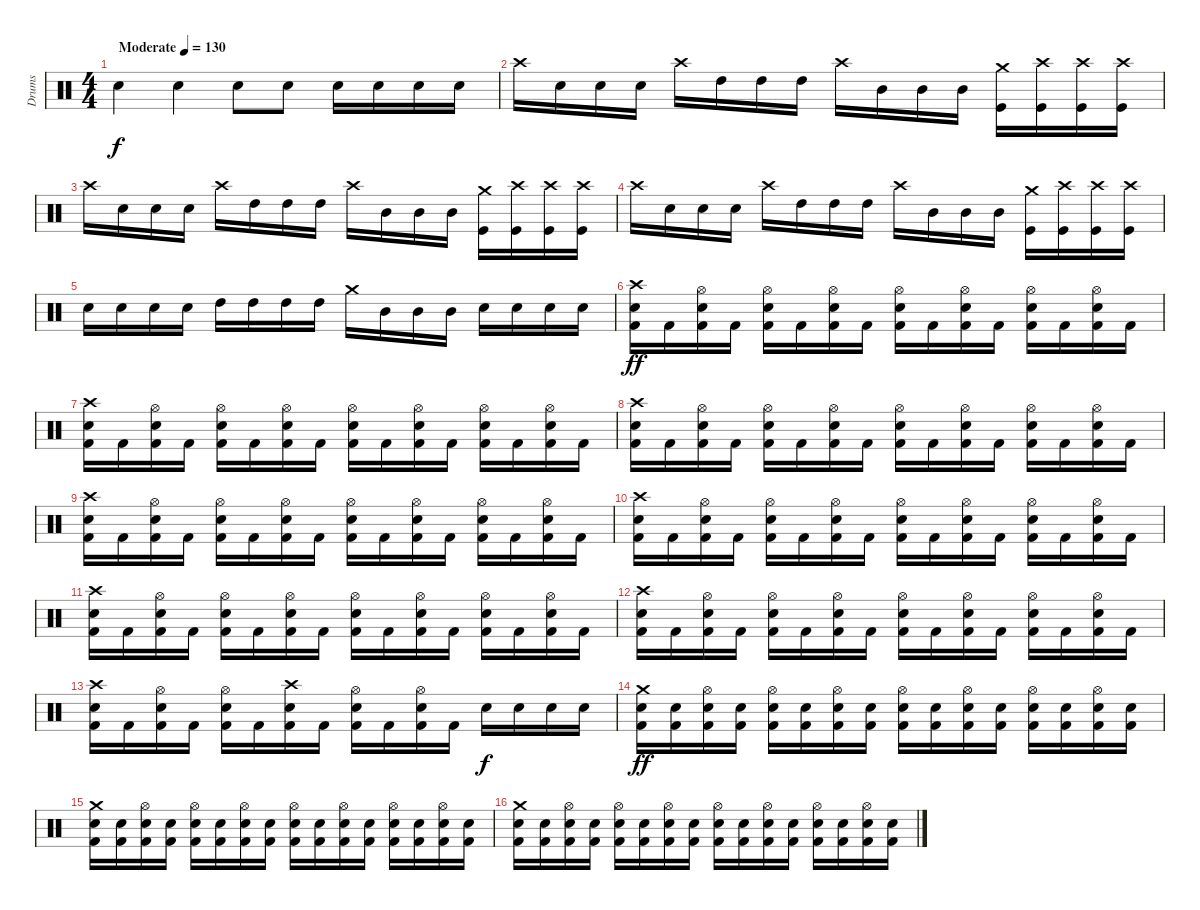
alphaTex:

\track ("Drums" "Drums") {instrument percussion}
\staff {score}
\articulation defaults
\ts (4 4)
\tempo (130 "Moderate")
\clef neutral
\ks c "Snare (hit) 2".4{dy f} "Snare (hit) 2".4 "Snare (hit) 2".8 "Snare (hit) 2".8 "Snare (hit) 2".16 "Snare (hit) 2".16 "Snare (hit) 2".16 "Snare (hit) 2".16
|
"Crash high (hit)".16 "Snare (hit) 2".16 "Snare (hit) 2".16 "Snare (hit) 2".16 "Crash high (hit)".16 "High Tom (hit)".16 "High Tom (hit)".16 "High Tom (hit)".16 "Crash high (hit)".16 "Mid Tom (hit)".16 "Mid Tom (hit)".16 "Mid Tom (hit)".16 ("Crash medium (hit)" "Kick (hit)").16 ("Crash high (hit)" "Kick (hit)").16 ("Kick (hit)" "Crash high (hit)").16 ("Crash high (hit)" "Kick (hit)").16 |
"Crash high (hit)".16 "Snare (hit) 2".16 "Snare (hit) 2".16 "Snare (hit) 2".16 "Crash high (hit)".16 "High Tom (hit)".16 "High Tom (hit)".16 "High Tom (hit)".16 "Crash high (hit)".16 "Mid Tom (hit)".16 "Mid Tom (hit)".16 "Mid Tom (hit)".16 ("Crash medium (hit)" "Kick (hit)").16 ("Crash high (hit)" "Kick (hit)").16 ("Kick (hit)" "Crash high (hit)").16 ("Crash high (hit)" "Kick (hit)").16 |
"Crash high (hit)".16 "Snare (hit) 2".16 "Snare (hit) 2".16 "Snare (hit) 2".16 "Crash high (hit)".16 "High Tom (hit)".16 "High Tom (hit)".16 "High Tom (hit)".16 "Crash high (hit)".16 "Mid Tom (hit)".16 "Mid Tom (hit)".16 "Mid Tom (hit)".16 ("Crash medium (hit)" "Kick (hit)").16 ("Crash high (hit)" "Kick (hit)").16 ("Kick (hit)" "Crash high (hit)").16 ("Crash high (hit)" "Kick (hit)").16 |
"Snare (hit) 2".16 "Snare (hit) 2".16 "Snare (hit) 2".16 "Snare (hit) 2".16 "High Tom (hit)".16 "High Tom (hit)".16 "High Tom (hit)".16 "High Tom (hit)".16 "Crash medium (hit)".16 "Mid Tom (hit)".16 "Mid Tom (hit)".16 "Mid Tom (hit)".16 "Snare (hit) 2".16 "Snare (hit) 2".16 "Snare (hit) 2".16 "Snare (hit) 2".16 |
("Kick (hit) 2" "Electric Snare (hit)" "Crash high (hit)").16{dy ff} "Kick (hit) 2".16 ("Kick (hit) 2" "Electric Snare (hit)" "Hi-Hat (open)").16 "Kick (hit) 2".16 ("Kick (hit) 2" "Hi-Hat (open)" "Electric Snare (hit)").16 "Kick (hit) 2".16 ("Kick (hit) 2" "Hi-Hat (open)" "Electric Snare (hit)").16 "Kick (hit) 2".16 ("Kick (hit) 2" "Hi-Hat (open)" "Electric Snare (hit)").16 "Kick (hit) 2".16 ("Kick (hit) 2" "Hi-Hat (open)" "Electric Snare (hit)").16 "Kick (hit) 2".16 ("Kick (hit) 2" "Hi-Hat (open)" "Electric Snare (hit)").16 "Kick (hit) 2".16 ("Kick (hit) 2" "Hi-Hat (open)" "Electric Snare (hit)").16 "Kick (hit) 2".16 |
("Kick (hit) 2" "Electric Snare (hit)" "Crash high (hit)").16 "Kick (hit) 2".16 ("Kick (hit) 2" "Electric Snare (hit)" "Hi-Hat (open)").16 "Kick (hit) 2".16 ("Kick (hit) 2" "Hi-Hat (open)" "Electric Snare (hit)").16 "Kick (hit) 2".16 ("Kick (hit) 2" "Hi-Hat (open)" "Electric Snare (hit)").16 "Kick (hit) 2".16 ("Kick (hit) 2" "Hi-Hat (open)" "Electric Snare (hit)").16 "Kick (hit) 2".16 ("Kick (hit) 2" "Hi-Hat (open)" "Electric Snare (hit)").16 "Kick (hit) 2".16 ("Kick (hit) 2" "Hi-Hat (open)" "Electric Snare (hit)").16 "Kick (hit) 2".16 ("Kick (hit) 2" "Hi-Hat (open)" "Electric Snare (hit)").16 "Kick (hit) 2".16 |
("Kick (hit) 2" "Electric Snare (hit)" "Crash high (hit)").16 "Kick (hit) 2".16 ("Kick (hit) 2" "Electric Snare (hit)" "Hi-Hat (open)").16 "Kick (hit) 2".16 ("Kick (hit) 2" "Hi-Hat (open)" "Electric Snare (hit)").16 "Kick (hit) 2".16 ("Kick (hit) 2" "Hi-Hat (open)" "Electric Snare (hit)").16 "Kick (hit) 2".16 ("Kick (hit) 2" "Hi-Hat (open)" "Electric Snare (hit)").16 "Kick (hit) 2".16 ("Kick (hit) 2" "Hi-Hat (open)" "Electric Snare (hit)").16 "Kick (hit) 2".16 ("Kick (hit) 2" "Hi-Hat (open)" "Electric Snare (hit)").16 "Kick (hit) 2".16 ("Kick (hit) 2" "Hi-Hat (open)" "Electric Snare (hit)").16 "Kick (hit) 2".16 |
("Kick (hit) 2" "Electric Snare (hit)" "Crash high (hit)").16 "Kick (hit) 2".16 ("Kick (hit) 2" "Electric Snare (hit)" "Hi-Hat (open)").16 "Kick (hit) 2".16 ("Kick (hit) 2" "Hi-Hat (open)" "Electric Snare (hit)").16 "Kick (hit) 2".16 ("Kick (hit) 2" "Hi-Hat (open)" "Electric Snare (hit)").16 "Kick (hit) 2".16 ("Kick (hit) 2" "Hi-Hat (open)" "Electric Snare (hit)").16 "Kick (hit) 2".16 ("Kick (hit) 2" "Hi-Hat (open)" "Electric Snare (hit)").16 "Kick (hit) 2".16 ("Kick (hit) 2" "Hi-Hat (open)" "Electric Snare (hit)").16 "Kick (hit) 2".16 ("Kick (hit) 2" "Hi-Hat (open)" "Electric Snare (hit)").16 "Kick (hit) 2".16 |
("Kick (hit) 2" "Electric Snare (hit)" "Crash high (hit)").16 "Kick (hit) 2".16 ("Kick (hit) 2" "Electric Snare (hit)" "Hi-Hat (open)").16 "Kick (hit) 2".16 ("Kick (hit) 2" "Hi-Hat (open)" "Electric Snare (hit)").16 "Kick (hit) 2".16 ("Kick (hit) 2" "Hi-Hat (open)" "Electric Snare (hit)").16 "Kick (hit) 2".16 ("Kick (hit) 2" "Hi-Hat (open)" "Electric Snare (hit)").16 "Kick (hit) 2".16 ("Kick (hit) 2" "Hi-Hat (open)" "Electric Snare (hit)").16 "Kick (hit) 2".16 ("Kick (hit) 2" "Hi-Hat (open)" "Electric Snare (hit)").16 "Kick (hit) 2".16 ("Kick (hit) 2" "Hi-Hat (open)" "Electric Snare (hit)").16 "Kick (hit) 2".16 |
("Kick (hit) 2" "Electric Snare (hit)" "Crash high (hit)").16 "Kick (hit) 2".16 ("Kick (hit) 2" "Electric Snare (hit)" "Hi-Hat (open)").16 "Kick (hit) 2".16 ("Kick (hit) 2" "Hi-Hat (open)" "Electric Snare (hit)").16 "Kick (hit) 2".16 ("Kick (hit) 2" "Hi-Hat (open)" "Electric Snare (hit)").16 "Kick (hit) 2".16 ("Kick (hit) 2" "Hi-Hat (open)" "Electric Snare (hit)").16 "Kick (hit) 2".16 ("Kick (hit) 2" "Hi-Hat (open)" "Electric Snare (hit)").16 "Kick (hit) 2".16 ("Kick (hit) 2" "Hi-Hat (open)" "Electric Snare (hit)").16 "Kick (hit) 2".16 ("Kick (hit) 2" "Hi-Hat (open)" "Electric Snare (hit)").16 "Kick (hit) 2".16 |
("Kick (hit) 2" "Electric Snare (hit)" "Crash high (hit)").16 "Kick (hit) 2".16 ("Kick (hit) 2" "Electric Snare (hit)" "Hi-Hat (open)").16 "Kick (hit) 2".16 ("Kick (hit) 2" "Hi-Hat (open)" "Electric Snare (hit)").16 "Kick (hit) 2".16 ("Kick (hit) 2" "Hi-Hat (open)" "Electric Snare (hit)").16 "Kick (hit) 2".16 ("Kick (hit) 2" "Hi-Hat (open)" "Electric Snare (hit)").16 "Kick (hit) 2".16 ("Kick (hit) 2" "Hi-Hat (open)" "Electric Snare (hit)").16 "Kick (hit) 2".16 ("Kick (hit) 2" "Hi-Hat (open)" "Electric Snare (hit)").16 "Kick (hit) 2".16 ("Kick (hit) 2" "Hi-Hat (open)" "Electric Snare (hit)").16 "Kick (hit) 2".16 |
("Kick (hit) 2" "Electric Snare (hit)" "Crash high (hit)").16 "Kick (hit) 2".16 ("Kick (hit) 2" "Electric Snare (hit)" "Hi-Hat (open)").16 "Kick (hit) 2".16 ("Kick (hit) 2" "Hi-Hat (open)" "Electric Snare (hit)").16 "Kick (hit) 2".16 ("Kick (hit) 2" "Crash high (hit)" "Electric Snare (hit)").16 "Kick (hit) 2".16 ("Kick (hit) 2" "Hi-Hat (open)" "Electric Snare (hit)").16 "Kick (hit) 2".16 ("Kick (hit) 2" "Hi-Hat (open)" "Electric Snare (hit)").16 "Kick (hit) 2".16 "Snare (hit) 2".16{dy f} "Snare (hit) 2".16 "Snare (hit) 2".16 "Snare (hit) 2".16 |
("Kick (hit) 2" "Snare (hit) 2" "Crash medium (hit)").16{dy ff} ("Kick (hit) 2" "Snare (hit) 2").16 ("Kick (hit) 2" "Snare (hit) 2" "Hi-Hat (open)").16 ("Kick (hit) 2" "Snare (hit) 2").16 ("Kick (hit) 2" "Snare (hit) 2" "Hi-Hat (open)").16 ("Kick (hit) 2" "Snare (hit) 2").16 ("Kick (hit) 2" "Snare (hit) 2" "Hi-Hat (open)").16 ("Kick (hit) 2" "Snare (hit) 2").16 ("Kick (hit) 2" "Snare (hit) 2" "Hi-Hat (open)").16 ("Kick (hit) 2" "Snare (hit) 2").16 ("Kick (hit) 2" "Snare (hit) 2" "Hi-Hat (open)").16 ("Kick (hit) 2" "Snare (hit) 2").16 ("Kick (hit) 2" "Snare (hit) 2" "Hi-Hat (open)").16 ("Kick (hit) 2" "Snare (hit) 2").16 ("Kick (hit) 2" "Snare (hit) 2" "Hi-Hat (open)").16 ("Kick (hit) 2" "Snare (hit) 2").16 |
("Kick (hit) 2" "Snare (hit) 2" "Crash medium (hit)").16 ("Kick (hit) 2" "Snare (hit) 2").16 ("Kick (hit) 2" "Snare (hit) 2" "Hi-Hat (open)").16 ("Kick (hit) 2" "Snare (hit) 2").16 ("Kick (hit) 2" "Snare (hit) 2" "Hi-Hat (open)").16 ("Kick (hit) 2" "Snare (hit) 2").16 ("Kick (hit) 2" "Snare (hit) 2" "Hi-Hat (open)").16 ("Kick (hit) 2" "Snare (hit) 2").16 ("Kick (hit) 2" "Snare (hit) 2" "Hi-Hat (open)").16 ("Kick (hit) 2" "Snare (hit) 2").16 ("Kick (hit) 2" "Snare (hit) 2" "Hi-Hat (open)").16 ("Kick (hit) 2" "Snare (hit) 2").16 ("Kick (hit) 2" "Snare (hit) 2" "Hi-Hat (open)").16 ("Kick (hit) 2" "Snare (hit) 2").16 ("Kick (hit) 2" "Snare (hit) 2" "Hi-Hat (open)").16 ("Kick (hit) 2" "Snare (hit) 2").16 |
("Kick (hit) 2" "Snare (hit) 2" "Crash medium (hit)").16 ("Kick (hit) 2" "Snare (hit) 2").16 ("Kick (hit) 2" "Snare (hit) 2" "Hi-Hat (open)").16 ("Kick (hit) 2" "Snare (hit) 2").16 ("Kick (hit) 2" "Snare (hit) 2" "Hi-Hat (open)").16 ("Kick (hit) 2" "Snare (hit) 2").16 ("Kick (hit) 2" "Snare (hit) 2" "Hi-Hat (open)").16 ("Kick (hit) 2" "Snare (hit) 2").16 ("Kick (hit) 2" "Snare (hit) 2" "Hi-Hat (open)").16 ("Kick (hit) 2" "Snare (hit) 2").16 ("Kick (hit) 2" "Snare (hit) 2" "Hi-Hat (open)").16 ("Kick (hit) 2" "Snare (hit) 2").16 ("Kick (hit) 2" "Snare (hit) 2" "Hi-Hat (open)").16 ("Kick (hit) 2" "Snare (hit) 2").16 ("Kick (hit) 2" "Snare (hit) 2" "Hi-Hat (open)").16 ("Kick (hit) 2" "Snare (hit) 2").16
